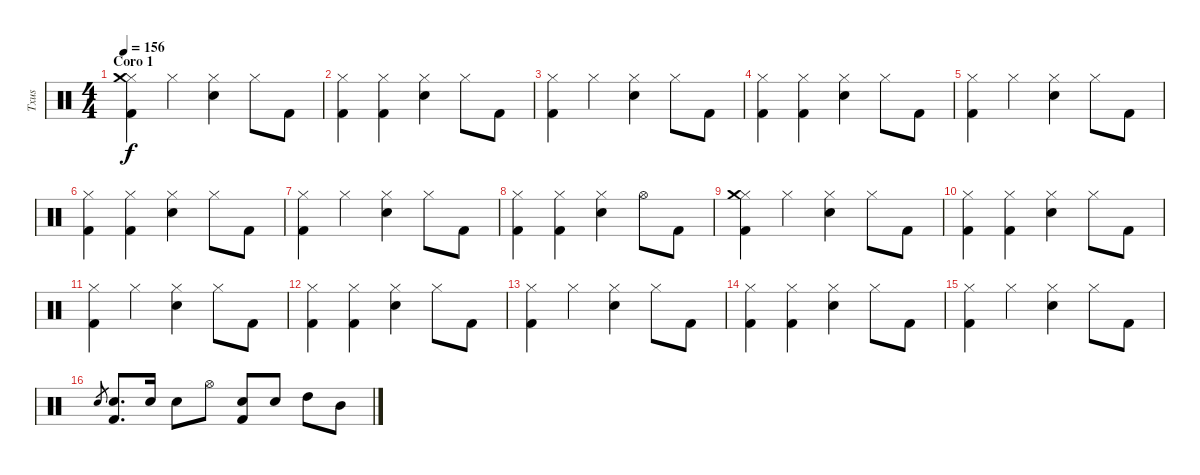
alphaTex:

\track ("Txus" "Txus") {instrument percussion}
\staff {score}
\articulation defaults
\ts (4 4)
\section ("" "Coro 1")
\tempo 156
\clef neutral
\ks c
("Hi-Hat (closed)" "Crash medium (hit)" "Kick (hit) 2").4{dy f} "Hi-Hat (closed)".4 ("Snare (hit) 2" "Hi-Hat (closed)").4 "Hi-Hat (closed)".8 "Kick (hit) 2".8 |
("Kick (hit) 2" "Hi-Hat (closed)").4 ("Hi-Hat (closed)" "Kick (hit) 2").4 ("Hi-Hat (closed)" "Snare (hit) 2").4 "Hi-Hat (closed)".8 "Kick (hit) 2".8 |
("Hi-Hat (closed)" "Kick (hit) 2").4 "Hi-Hat (closed)".4 ("Snare (hit) 2" "Hi-Hat (closed)").4 "Hi-Hat (closed)".8 "Kick (hit) 2".8 |
("Kick (hit) 2" "Hi-Hat (closed)").4 ("Hi-Hat (closed)" "Kick (hit) 2").4 ("Hi-Hat (closed)" "Snare (hit) 2").4 "Hi-Hat (closed)".8 "Kick (hit) 2".8 |
("Hi-Hat (closed)" "Kick (hit) 2").4 "Hi-Hat (closed)".4 ("Snare (hit) 2" "Hi-Hat (closed)").4 "Hi-Hat (closed)".8 "Kick (hit) 2".8 |
("Kick (hit) 2" "Hi-Hat (closed)").4 ("Hi-Hat (closed)" "Kick (hit) 2").4 ("Hi-Hat (closed)" "Snare (hit) 2").4 "Hi-Hat (closed)".8 "Kick (hit) 2".8 |
("Hi-Hat (closed)" "Kick (hit) 2").4 "Hi-Hat (closed)".4 ("Snare (hit) 2" "Hi-Hat (closed)").4 "Hi-Hat (closed)".8 "Kick (hit) 2".8 |
("Kick (hit) 2" "Hi-Hat (closed)").4 ("Hi-Hat (closed)" "Kick (hit) 2").4 ("Hi-Hat (closed)" "Snare (hit) 2").4 "Hi-Hat (open)".8 "Kick (hit) 2".8 |
("Hi-Hat (closed)" "Crash medium (hit)" "Kick (hit) 2").4 "Hi-Hat (closed)".4 ("Snare (hit) 2" "Hi-Hat (closed)").4 "Hi-Hat (closed)".8 "Kick (hit) 2".8 |
("Kick (hit) 2" "Hi-Hat (closed)").4 ("Hi-Hat (closed)" "Kick (hit) 2").4 ("Hi-Hat (closed)" "Snare (hit) 2").4 "Hi-Hat (closed)".8 "Kick (hit) 2".8 |
("Hi-Hat (closed)" "Kick (hit) 2").4 "Hi-Hat (closed)".4 ("Snare (hit) 2" "Hi-Hat (closed)").4 "Hi-Hat (closed)".8 "Kick (hit) 2".8 |
("Kick (hit) 2" "Hi-Hat (closed)").4 ("Hi-Hat (closed)" "Kick (hit) 2").4 ("Hi-Hat (closed)" "Snare (hit) 2").4 "Hi-Hat (closed)".8 "Kick (hit) 2".8 |
("Hi-Hat (closed)" "Kick (hit) 2").4 "Hi-Hat (closed)".4 ("Snare (hit) 2" "Hi-Hat (closed)").4 "Hi-Hat (closed)".8 "Kick (hit) 2".8 |
("Kick (hit) 2" "Hi-Hat (closed)").4 ("Hi-Hat (closed)" "Kick (hit) 2").4 ("Hi-Hat (closed)" "Snare (hit) 2").4 "Hi-Hat (closed)".8 "Kick (hit) 2".8 |
("Hi-Hat (closed)" "Kick (hit) 2").4 "Hi-Hat (closed)".4 ("Snare (hit) 2" "Hi-Hat (closed)").4 "Hi-Hat (closed)".8 "Kick (hit) 2".8 |
"Snare (hit) 2".8{gr} ("Kick (hit) 2" "Snare (hit) 2").8{d} "Snare (hit) 2".16 "Snare (hit) 2".8 "Hi-Hat (open)".8 ("Kick (hit) 2" "Snare (hit) 2").8 "Snare (hit) 2".8 "High Tom (hit)".8 "Mid Tom (hit)".8
